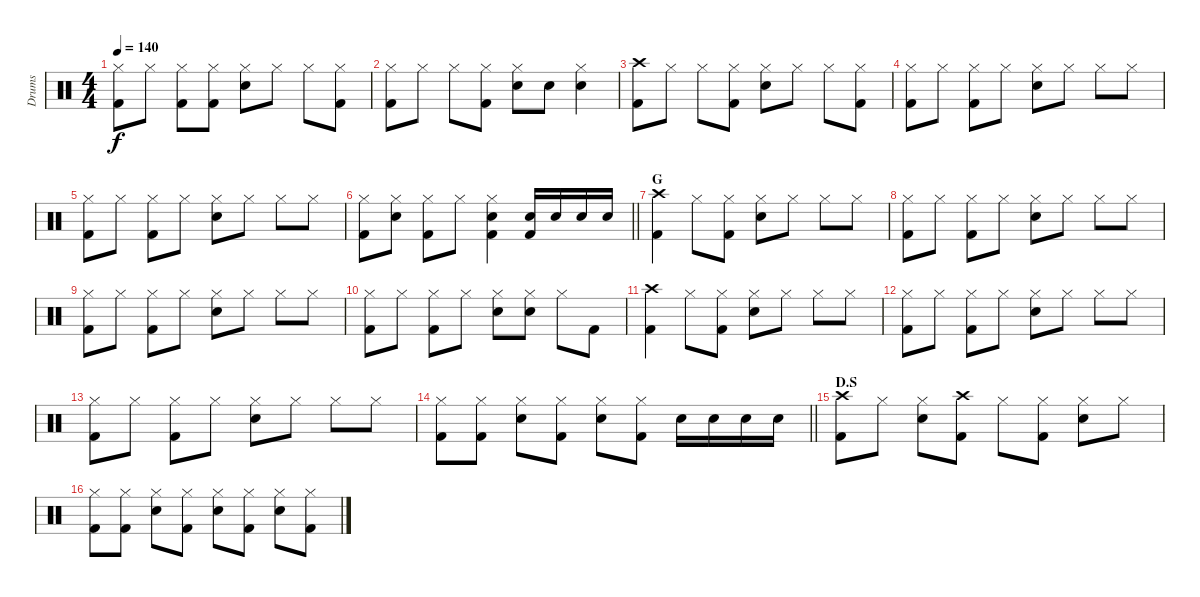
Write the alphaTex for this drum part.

\track ("Drums" "Drums") {instrument percussion}
\staff {score}
\articulation defaults
\ts (4 4)
\tempo 140
\clef neutral
\ks c
("Hi-Hat (closed)" "Kick (hit) 2").8{dy f} "Hi-Hat (closed)".8 ("Hi-Hat (closed)" "Kick (hit) 2").8 ("Hi-Hat (closed)" "Kick (hit) 2").8 ("Hi-Hat (closed)" "Snare (hit) 2").8 "Hi-Hat (closed)".8 "Hi-Hat (closed)".8 ("Hi-Hat (closed)" "Kick (hit) 2").8 |
("Hi-Hat (closed)" "Kick (hit) 2").8 "Hi-Hat (closed)".8 "Hi-Hat (closed)".8 ("Hi-Hat (closed)" "Kick (hit) 2").8 ("Hi-Hat (closed)" "Snare (hit) 2").8 "Snare (hit) 2".8 ("Hi-Hat (closed)" "Snare (hit) 2").4 |
("Crash high (hit)" "Kick (hit) 2").8 "Hi-Hat (closed)".8 "Hi-Hat (closed)".8 ("Hi-Hat (closed)" "Kick (hit) 2").8 ("Hi-Hat (closed)" "Snare (hit) 2").8 "Hi-Hat (closed)".8 "Hi-Hat (closed)".8 ("Hi-Hat (closed)" "Kick (hit) 2").8 |
("Hi-Hat (closed)" "Kick (hit) 2").8 "Hi-Hat (closed)".8 ("Hi-Hat (closed)" "Kick (hit) 2").8 "Hi-Hat (closed)".8 ("Hi-Hat (closed)" "Snare (hit) 2").8 "Hi-Hat (closed)".8 "Hi-Hat (closed)".8 "Hi-Hat (closed)".8 |
("Hi-Hat (closed)" "Kick (hit) 2").8 "Hi-Hat (closed)".8 ("Hi-Hat (closed)" "Kick (hit) 2").8 "Hi-Hat (closed)".8 ("Hi-Hat (closed)" "Snare (hit) 2").8 "Hi-Hat (closed)".8 "Hi-Hat (closed)".8 "Hi-Hat (closed)".8 |
\barLineRight lightlight
("Hi-Hat (closed)" "Kick (hit) 2").8 ("Hi-Hat (closed)" "Snare (hit) 2").8 ("Hi-Hat (closed)" "Kick (hit) 2").8 "Hi-Hat (closed)".8 ("Hi-Hat (closed)" "Snare (hit) 2" "Kick (hit) 2").4 ("Snare (hit) 2" "Kick (hit) 2").16 "Snare (hit) 2".16 "Snare (hit) 2".16 "Snare (hit) 2".16 |
\section ("" "G")
("Crash high (hit)" "Kick (hit) 2").4 "Hi-Hat (closed)".8 ("Hi-Hat (closed)" "Kick (hit) 2").8 ("Hi-Hat (closed)" "Snare (hit) 2").8 "Hi-Hat (closed)".8 "Hi-Hat (closed)".8 "Hi-Hat (closed)".8 |
("Hi-Hat (closed)" "Kick (hit) 2").8 "Hi-Hat (closed)".8 ("Hi-Hat (closed)" "Kick (hit) 2").8 "Hi-Hat (closed)".8 ("Hi-Hat (closed)" "Snare (hit) 2").8 "Hi-Hat (closed)".8 "Hi-Hat (closed)".8 "Hi-Hat (closed)".8 |
("Hi-Hat (closed)" "Kick (hit) 2").8 "Hi-Hat (closed)".8 ("Hi-Hat (closed)" "Kick (hit) 2").8 "Hi-Hat (closed)".8 ("Hi-Hat (closed)" "Snare (hit) 2").8 "Hi-Hat (closed)".8 "Hi-Hat (closed)".8 "Hi-Hat (closed)".8 |
("Hi-Hat (closed)" "Kick (hit) 2").8 "Hi-Hat (closed)".8 ("Hi-Hat (closed)" "Kick (hit) 2").8 "Hi-Hat (closed)".8 ("Hi-Hat (closed)" "Snare (hit) 2").8 ("Hi-Hat (closed)" "Snare (hit) 2").8 "Hi-Hat (closed)".8 "Kick (hit) 2".8 |
("Crash high (hit)" "Kick (hit) 2").4 "Hi-Hat (closed)".8 ("Hi-Hat (closed)" "Kick (hit) 2").8 ("Hi-Hat (closed)" "Snare (hit) 2").8 "Hi-Hat (closed)".8 "Hi-Hat (closed)".8 "Hi-Hat (closed)".8 |
("Hi-Hat (closed)" "Kick (hit) 2").8 "Hi-Hat (closed)".8 ("Hi-Hat (closed)" "Kick (hit) 2").8 "Hi-Hat (closed)".8 ("Hi-Hat (closed)" "Snare (hit) 2").8 "Hi-Hat (closed)".8 "Hi-Hat (closed)".8 "Hi-Hat (closed)".8 |
("Hi-Hat (closed)" "Kick (hit) 2").8 "Hi-Hat (closed)".8 ("Hi-Hat (closed)" "Kick (hit) 2").8 "Hi-Hat (closed)".8 ("Hi-Hat (closed)" "Snare (hit) 2").8 "Hi-Hat (closed)".8 "Hi-Hat (closed)".8 "Hi-Hat (closed)".8 |
\barLineRight lightlight
("Hi-Hat (closed)" "Kick (hit) 2").8 ("Hi-Hat (closed)" "Kick (hit) 2").8 ("Hi-Hat (closed)" "Snare (hit) 2").8 ("Hi-Hat (closed)" "Kick (hit) 2").8 ("Hi-Hat (closed)" "Snare (hit) 2").8 ("Hi-Hat (closed)" "Kick (hit) 2").8 "Snare (hit) 2".16 "Snare (hit) 2".16 "Snare (hit) 2".16 "Snare (hit) 2".16 |
\section ("" "D.S")
("Crash high (hit)" "Kick (hit) 2").8 "Hi-Hat (closed)".8 ("Hi-Hat (closed)" "Snare (hit) 2").8 ("Crash high (hit)" "Kick (hit) 2").8 "Hi-Hat (closed)".8 ("Hi-Hat (closed)" "Kick (hit) 2").8 ("Hi-Hat (closed)" "Snare (hit) 2").8 "Hi-Hat (closed)".8 |
("Hi-Hat (closed)" "Kick (hit) 2").8 ("Hi-Hat (closed)" "Kick (hit) 2").8 ("Hi-Hat (closed)" "Snare (hit) 2").8 ("Hi-Hat (closed)" "Kick (hit) 2").8 ("Hi-Hat (closed)" "Snare (hit) 2").8 ("Hi-Hat (closed)" "Kick (hit) 2").8 ("Hi-Hat (closed)" "Snare (hit) 2").8 ("Hi-Hat (closed)" "Kick (hit) 2").8
